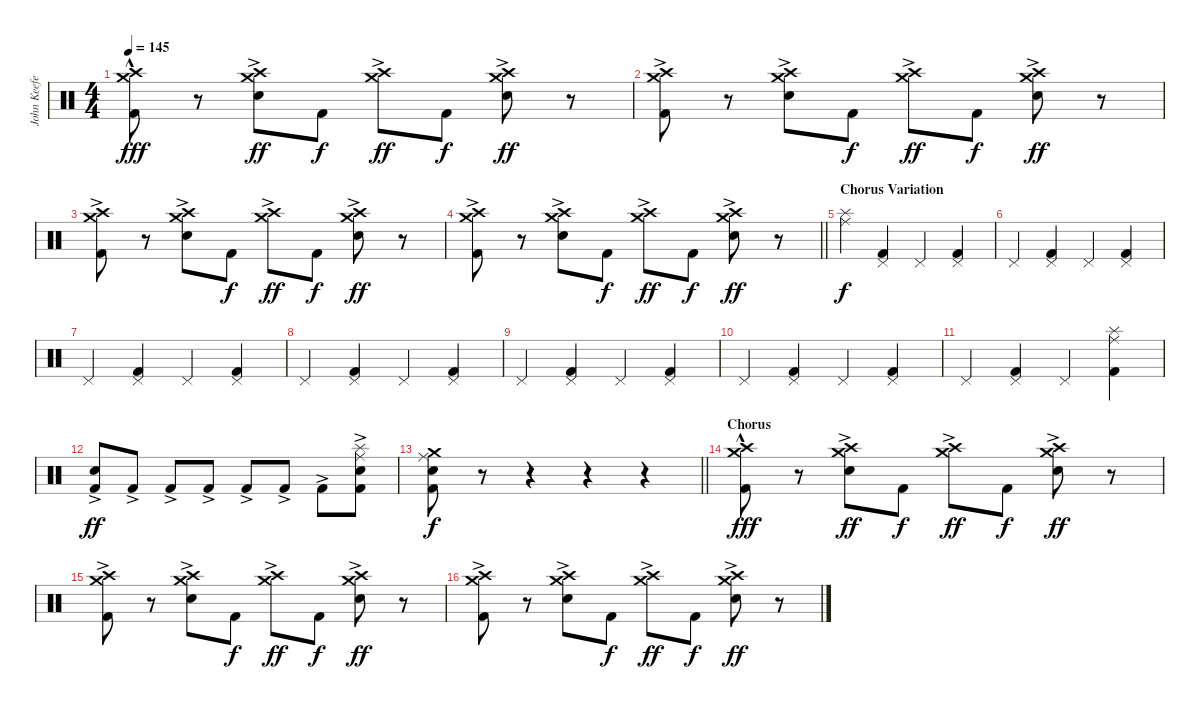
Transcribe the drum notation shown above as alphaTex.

\track ("John Keefe (Percussion)" "John Keefe") {instrument percussion}
\staff {score}
\articulation defaults
\ts (4 4)
\tempo 145
\clef neutral
\ks c
("Crash high (hit)"{hac} "Crash medium (hit)"{hac} "Kick (hit) 2"{hac}).8{dy fff} r.8 ("Crash high (hit)"{ac} "Crash medium (hit)"{ac} "Electric Snare (hit)").8{dy ff} "Kick (hit) 2".8{dy f} ("Crash high (hit)"{ac} "Crash medium (hit)"{ac}).8{dy ff} "Kick (hit) 2".8{dy f} ("Crash high (hit)"{ac} "Crash medium (hit)"{ac} "Electric Snare (hit)").8{dy ff} r.8 |
("Crash high (hit)"{ac} "Crash medium (hit)"{ac} "Kick (hit) 2").8 r.8 ("Crash high (hit)"{ac} "Crash medium (hit)"{ac} "Electric Snare (hit)").8 "Kick (hit) 2".8{dy f} ("Crash high (hit)"{ac} "Crash medium (hit)"{ac}).8{dy ff} "Kick (hit) 2".8{dy f} ("Crash high (hit)"{ac} "Crash medium (hit)"{ac} "Electric Snare (hit)").8{dy ff} r.8 |
("Crash high (hit)"{ac} "Crash medium (hit)"{ac} "Kick (hit) 2").8 r.8 ("Crash high (hit)"{ac} "Crash medium (hit)"{ac} "Electric Snare (hit)").8 "Kick (hit) 2".8{dy f} ("Crash high (hit)"{ac} "Crash medium (hit)"{ac}).8{dy ff} "Kick (hit) 2".8{dy f} ("Crash high (hit)"{ac} "Crash medium (hit)"{ac} "Electric Snare (hit)").8{dy ff} r.8 |
\barLineRight lightlight
("Crash high (hit)"{ac} "Crash medium (hit)"{ac} "Kick (hit) 2").8 r.8 ("Crash high (hit)"{ac} "Crash medium (hit)"{ac} "Electric Snare (hit)").8 "Kick (hit) 2".8{dy f} ("Crash high (hit)"{ac} "Crash medium (hit)"{ac}).8{dy ff} "Kick (hit) 2".8{dy f} ("Crash high (hit)"{ac} "Crash medium (hit)"{ac} "Electric Snare (hit)").8{dy ff} r.8 |
\section ("" "Chorus Variation")
("Ride (middle)" "Splash (hit)").4{dy f} ("Pedal Hi-Hat (hit)" "Kick (hit) 2").4 "Pedal Hi-Hat (hit)".4 ("Pedal Hi-Hat (hit)" "Kick (hit) 2").4 |
"Pedal Hi-Hat (hit)".4 ("Pedal Hi-Hat (hit)" "Kick (hit) 2").4 "Pedal Hi-Hat (hit)".4 ("Pedal Hi-Hat (hit)" "Kick (hit) 2").4 |
"Pedal Hi-Hat (hit)".4 ("Pedal Hi-Hat (hit)" "Kick (hit) 2").4 "Pedal Hi-Hat (hit)".4 ("Pedal Hi-Hat (hit)" "Kick (hit) 2").4 |
"Pedal Hi-Hat (hit)".4 ("Pedal Hi-Hat (hit)" "Kick (hit) 2").4 "Pedal Hi-Hat (hit)".4 ("Pedal Hi-Hat (hit)" "Kick (hit) 2").4 |
"Pedal Hi-Hat (hit)".4 ("Pedal Hi-Hat (hit)" "Kick (hit) 2").4 "Pedal Hi-Hat (hit)".4 ("Pedal Hi-Hat (hit)" "Kick (hit) 2").4 |
"Pedal Hi-Hat (hit)".4 ("Pedal Hi-Hat (hit)" "Kick (hit) 2").4 "Pedal Hi-Hat (hit)".4 ("Pedal Hi-Hat (hit)" "Kick (hit) 2").4 |
"Pedal Hi-Hat (hit)".4 ("Pedal Hi-Hat (hit)" "Kick (hit) 2").4 "Pedal Hi-Hat (hit)".4 ("Ride (middle)" "Splash (hit)" "Kick (hit) 2").4 |
("Electric Snare (hit)"{ac} "Kick (hit) 2"{ac}).8{dy ff} "Kick (hit) 2"{ac}.8 "Kick (hit) 2"{ac}.8 "Kick (hit) 2"{ac}.8 "Kick (hit) 2"{ac}.8 "Kick (hit) 2"{ac}.8 "Kick (hit) 2"{ac}.8 ("Ride (middle)" "Splash (hit)" "Electric Snare (hit)"{ac} "Kick (hit) 2"{ac}).8 |
\barLineRight lightlight
("Ride (middle)" "Crash medium (hit)" "Electric Snare (hit)" "Kick (hit) 2").8{dy f} r.8 r.4 r.4 r.4 |
\section ("" "Chorus")
("Crash high (hit)"{hac} "Crash medium (hit)"{hac} "Kick (hit) 2"{hac}).8{dy fff} r.8 ("Crash high (hit)"{ac} "Crash medium (hit)"{ac} "Electric Snare (hit)").8{dy ff} "Kick (hit) 2".8{dy f} ("Crash high (hit)"{ac} "Crash medium (hit)"{ac}).8{dy ff} "Kick (hit) 2".8{dy f} ("Crash high (hit)"{ac} "Crash medium (hit)"{ac} "Electric Snare (hit)").8{dy ff} r.8 |
("Crash high (hit)"{ac} "Crash medium (hit)"{ac} "Kick (hit) 2").8 r.8 ("Crash high (hit)"{ac} "Crash medium (hit)"{ac} "Electric Snare (hit)").8 "Kick (hit) 2".8{dy f} ("Crash high (hit)"{ac} "Crash medium (hit)"{ac}).8{dy ff} "Kick (hit) 2".8{dy f} ("Crash high (hit)"{ac} "Crash medium (hit)"{ac} "Electric Snare (hit)").8{dy ff} r.8 |
("Crash high (hit)"{ac} "Crash medium (hit)"{ac} "Kick (hit) 2").8 r.8 ("Crash high (hit)"{ac} "Crash medium (hit)"{ac} "Electric Snare (hit)").8 "Kick (hit) 2".8{dy f} ("Crash high (hit)"{ac} "Crash medium (hit)"{ac}).8{dy ff} "Kick (hit) 2".8{dy f} ("Crash high (hit)"{ac} "Crash medium (hit)"{ac} "Electric Snare (hit)").8{dy ff} r.8
